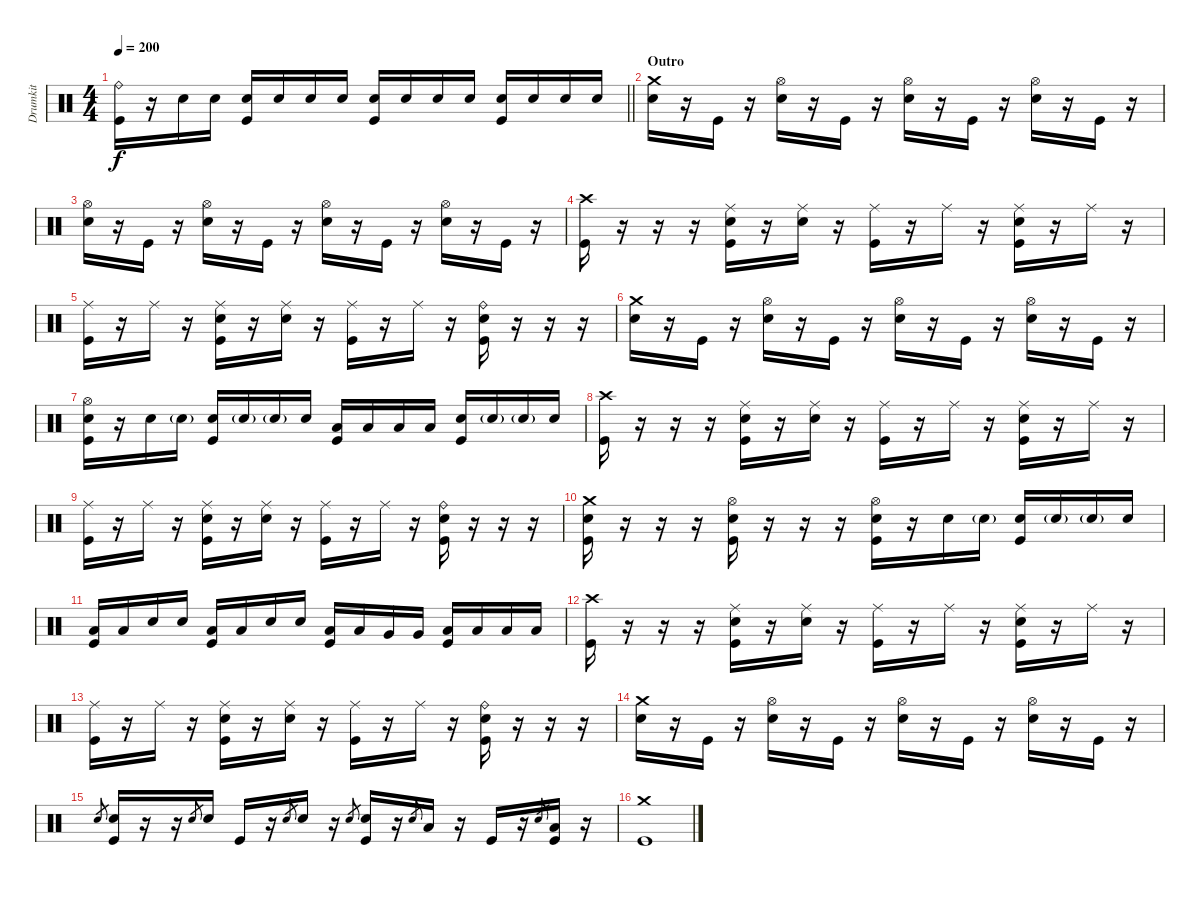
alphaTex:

\track ("Drumkit" "Drumkit") {instrument percussion}
\staff {score}
\articulation defaults
\ts (4 4)
\tempo 200
\clef neutral
\barLineRight lightlight
\ks c
("Ride (bell)" "Kick (hit)").16{dy f} r.16 "Snare (hit) 2".16 "Snare (hit) 2".16 ("Kick (hit)" "Snare (hit) 2").16 "Snare (hit) 2".16 "Snare (hit) 2".16 "Snare (hit) 2".16 ("Kick (hit)" "Snare (hit) 2").16 "Snare (hit) 2".16 "Snare (hit) 2".16 "Snare (hit) 2".16 ("Kick (hit)" "Snare (hit) 2").16 "Snare (hit) 2".16 "Snare (hit) 2".16 "Snare (hit) 2".16 |
\section ("" "Outro")
("Crash medium (hit)" "Snare (hit) 2").16 r.16 "Kick (hit)".16 r.16 ("Snare (hit) 2" "Hi-Hat (open)").16 r.16 "Kick (hit)".16 r.16 ("Snare (hit) 2" "Hi-Hat (open)").16 r.16 "Kick (hit)".16 r.16 ("Snare (hit) 2" "Hi-Hat (open)").16 r.16 "Kick (hit)".16 r.16 |
("Snare (hit) 2" "Hi-Hat (open)").16 r.16 "Kick (hit)".16 r.16 ("Snare (hit) 2" "Hi-Hat (open)").16 r.16 "Kick (hit)".16 r.16 ("Snare (hit) 2" "Hi-Hat (open)").16 r.16 "Kick (hit)".16 r.16 ("Snare (hit) 2" "Hi-Hat (open)").16 r.16 "Kick (hit)".16 r.16 |
("Crash high (hit)" "Kick (hit)").16 r.16 r.16 r.16 ("Ride (middle)" "Kick (hit)" "Snare (hit) 2").16 r.16 ("Ride (middle)" "Snare (hit) 2").16 r.16 ("Ride (middle)" "Kick (hit)").16 r.16 "Ride (middle)".16 r.16 ("Ride (middle)" "Kick (hit)" "Snare (hit) 2").16 r.16 "Ride (middle)".16 r.16 |
("Ride (middle)" "Kick (hit)").16 r.16 "Ride (middle)".16 r.16 ("Ride (middle)" "Kick (hit)" "Snare (hit) 2").16 r.16 ("Ride (middle)" "Snare (hit) 2").16 r.16 ("Ride (middle)" "Kick (hit)").16 r.16 "Ride (middle)".16 r.16 ("Ride (bell)" "Kick (hit)" "Snare (hit) 2").16 r.16 r.16 r.16 |
("Crash medium (hit)" "Snare (hit) 2").16 r.16 "Kick (hit)".16 r.16 ("Snare (hit) 2" "Hi-Hat (open)").16 r.16 "Kick (hit)".16 r.16 ("Snare (hit) 2" "Hi-Hat (open)").16 r.16 "Kick (hit)".16 r.16 ("Snare (hit) 2" "Hi-Hat (open)").16 r.16 "Kick (hit)".16 r.16 |
("Hi-Hat (open)" "Snare (hit) 2" "Kick (hit)").16 r.16 "Snare (hit) 2".16 "Snare (hit) 2"{g}.16 ("Snare (hit) 2" "Kick (hit)").16 "Snare (hit) 2"{g}.16 "Snare (hit) 2"{g}.16 "Snare (hit) 2".16 ("Low Tom (hit)" "Kick (hit)").16 "Low Tom (hit)".16 "Low Tom (hit)".16 "Low Tom (hit)".16 ("Snare (hit) 2" "Kick (hit)").16 "Snare (hit) 2"{g}.16 "Snare (hit) 2"{g}.16 "Snare (hit) 2".16 |
("Crash high (hit)" "Kick (hit)").16 r.16 r.16 r.16 ("Ride (middle)" "Kick (hit)" "Snare (hit) 2").16 r.16 ("Ride (middle)" "Snare (hit) 2").16 r.16 ("Ride (middle)" "Kick (hit)").16 r.16 "Ride (middle)".16 r.16 ("Ride (middle)" "Kick (hit)" "Snare (hit) 2").16 r.16 "Ride (middle)".16 r.16 |
("Ride (middle)" "Kick (hit)").16 r.16 "Ride (middle)".16 r.16 ("Ride (middle)" "Kick (hit)" "Snare (hit) 2").16 r.16 ("Ride (middle)" "Snare (hit) 2").16 r.16 ("Ride (middle)" "Kick (hit)").16 r.16 "Ride (middle)".16 r.16 ("Ride (bell)" "Kick (hit)" "Snare (hit) 2").16 r.16 r.16 r.16 |
("Crash medium (hit)" "Kick (hit)" "Snare (hit) 2").16 r.16 r.16 r.16 ("Hi-Hat (open)" "Snare (hit) 2" "Kick (hit)").16 r.16 r.16 r.16 ("Hi-Hat (open)" "Snare (hit) 2" "Kick (hit)").16 r.16 "Snare (hit) 2".16 "Snare (hit) 2"{g}.16 ("Snare (hit) 2" "Kick (hit)").16 "Snare (hit) 2"{g}.16 "Snare (hit) 2"{g}.16 "Snare (hit) 2".16 |
("Low Tom (hit)" "Kick (hit)").16 "Low Tom (hit)".16 "Snare (hit) 2".16 "Snare (hit) 2".16 ("Low Tom (hit)" "Kick (hit)").16 "Low Tom (hit)".16 "Snare (hit) 2".16 "Snare (hit) 2".16 ("Low Tom (hit)" "Kick (hit)").16 "Low Tom (hit)".16 "Very Low Tom (hit)".16 "Very Low Tom (hit)".16 ("Low Floor Tom (hit)" "Kick (hit)").16 "Low Floor Tom (hit)".16 "Low Floor Tom (hit)".16 "Low Floor Tom (hit)".16 |
("Crash high (hit)" "Kick (hit)").16 r.16 r.16 r.16 ("Ride (middle)" "Kick (hit)" "Snare (hit) 2").16 r.16 ("Ride (middle)" "Snare (hit) 2").16 r.16 ("Ride (middle)" "Kick (hit)").16 r.16 "Ride (middle)".16 r.16 ("Ride (middle)" "Kick (hit)" "Snare (hit) 2").16 r.16 "Ride (middle)".16 r.16 |
("Ride (middle)" "Kick (hit)").16 r.16 "Ride (middle)".16 r.16 ("Ride (middle)" "Kick (hit)" "Snare (hit) 2").16 r.16 ("Ride (middle)" "Snare (hit) 2").16 r.16 ("Ride (middle)" "Kick (hit)").16 r.16 "Ride (middle)".16 r.16 ("Ride (bell)" "Kick (hit)" "Snare (hit) 2").16 r.16 r.16 r.16 |
("Crash medium (hit)" "Snare (hit) 2").16 r.16 "Kick (hit)".16 r.16 ("Snare (hit) 2" "Hi-Hat (open)").16 r.16 "Kick (hit)".16 r.16 ("Snare (hit) 2" "Hi-Hat (open)").16 r.16 "Kick (hit)".16 r.16 ("Snare (hit) 2" "Hi-Hat (open)").16 r.16 "Kick (hit)".16 r.16 |
"Snare (hit)".8{gr} ("Snare (hit) 2" "Kick (hit)").16 r.16 r.16 "Snare (hit)".8{gr} "Snare (hit) 2".16 "Kick (hit)".16 r.16 "Snare (hit)".8{gr} "Snare (hit) 2".16 r.16 "Snare (hit)".8{gr} ("Snare (hit) 2" "Kick (hit)").16 r.16 "Snare (hit)".8{gr} "Low Tom (hit)".16 r.16 "Kick (hit)".16 r.16 "Snare (hit)".8{gr} ("Kick (hit)" "Low Floor Tom (hit)").16 r.16 |
("Crash medium (hit)" "Kick (hit)").1
